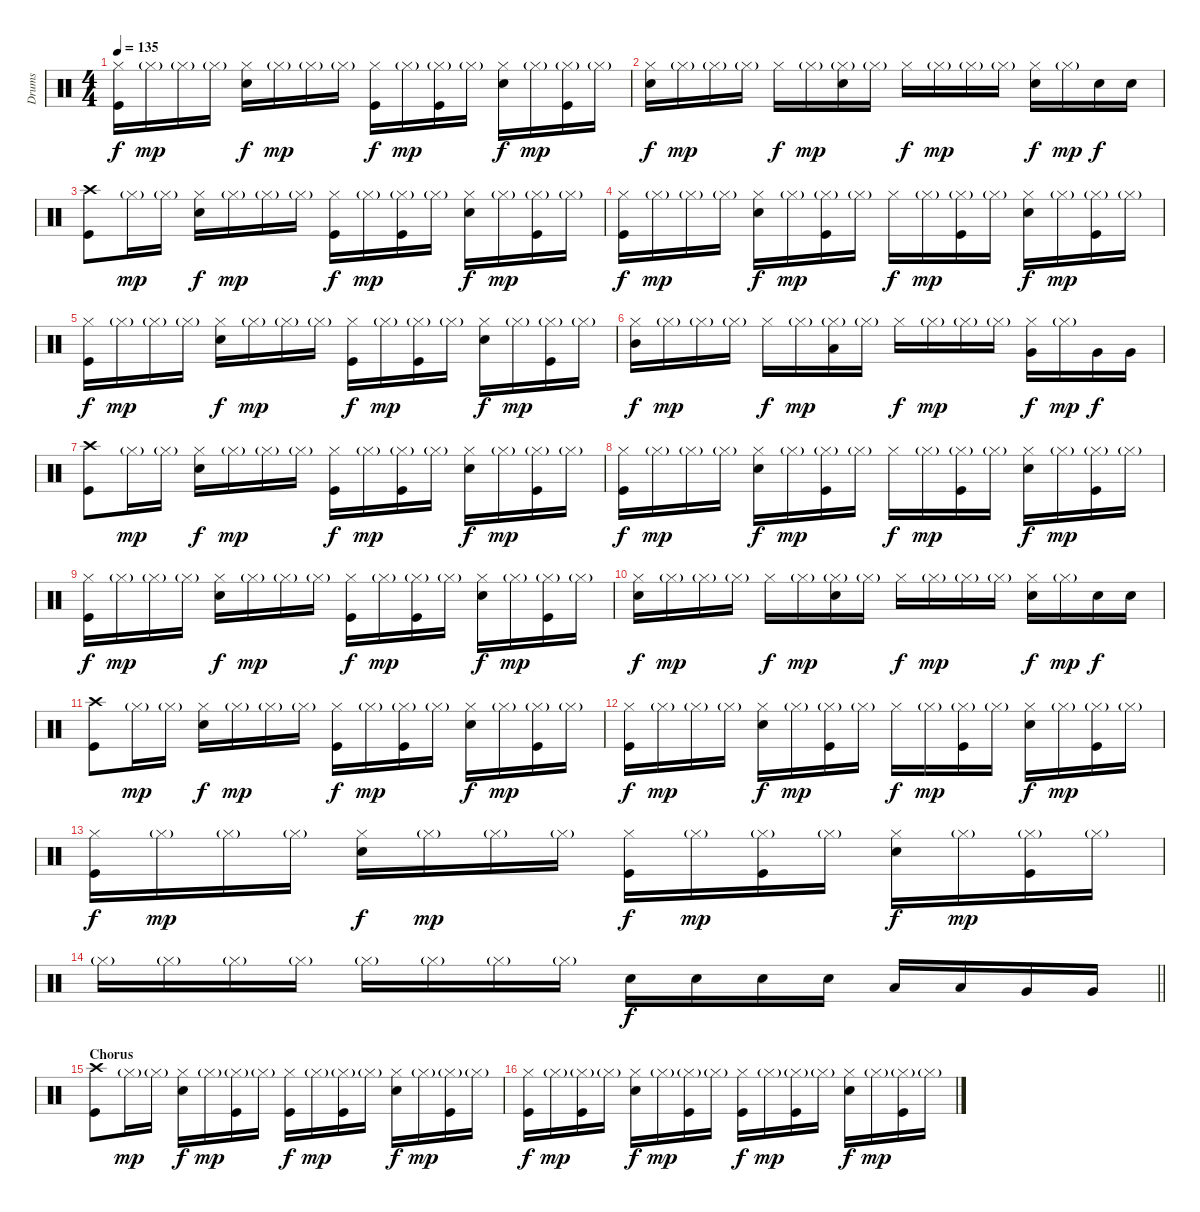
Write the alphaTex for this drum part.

\track ("Drums" "Drums") {instrument percussion}
\staff {score}
\articulation defaults
\ts (4 4)
\tempo 135
\clef neutral
\ks c
("Hi-Hat (closed)" "Kick (hit)").16{dy f} "Hi-Hat (closed)"{g}.16{dy mp} "Hi-Hat (closed)"{g}.16 "Hi-Hat (closed)"{g}.16 ("Hi-Hat (closed)" "Snare (hit) 2").16{dy f} "Hi-Hat (closed)"{g}.16{dy mp} "Hi-Hat (closed)"{g}.16 "Hi-Hat (closed)"{g}.16 ("Hi-Hat (closed)" "Kick (hit)").16{dy f} "Hi-Hat (closed)"{g}.16{dy mp} ("Hi-Hat (closed)"{g} "Kick (hit)").16 "Hi-Hat (closed)"{g}.16 ("Hi-Hat (closed)" "Snare (hit) 2").16{dy f} "Hi-Hat (closed)"{g}.16{dy mp} ("Hi-Hat (closed)"{g} "Kick (hit)").16 "Hi-Hat (closed)"{g}.16 |
("Hi-Hat (closed)" "Snare (hit) 2").16{dy f} "Hi-Hat (closed)"{g}.16{dy mp} "Hi-Hat (closed)"{g}.16 "Hi-Hat (closed)"{g}.16 "Hi-Hat (closed)".16{dy f} "Hi-Hat (closed)"{g}.16{dy mp} ("Hi-Hat (closed)"{g} "Snare (hit) 2").16 "Hi-Hat (closed)"{g}.16 "Hi-Hat (closed)".16{dy f} "Hi-Hat (closed)"{g}.16{dy mp} "Hi-Hat (closed)"{g}.16 "Hi-Hat (closed)"{g}.16 ("Hi-Hat (closed)" "Snare (hit) 2").16{dy f} "Hi-Hat (closed)"{g}.16{dy mp} "Snare (hit) 2".16{dy f} "Snare (hit) 2".16 |
("Crash high (hit)" "Kick (hit)").8 "Hi-Hat (closed)"{g}.16{dy mp} "Hi-Hat (closed)"{g}.16 ("Hi-Hat (closed)" "Snare (hit) 2").16{dy f} "Hi-Hat (closed)"{g}.16{dy mp} "Hi-Hat (closed)"{g}.16 "Hi-Hat (closed)"{g}.16 ("Hi-Hat (closed)" "Kick (hit)").16{dy f} "Hi-Hat (closed)"{g}.16{dy mp} ("Hi-Hat (closed)"{g} "Kick (hit)").16 "Hi-Hat (closed)"{g}.16 ("Hi-Hat (closed)" "Snare (hit) 2").16{dy f} "Hi-Hat (closed)"{g}.16{dy mp} ("Hi-Hat (closed)"{g} "Kick (hit)").16 "Hi-Hat (closed)"{g}.16 |
("Hi-Hat (closed)" "Kick (hit)").16{dy f} "Hi-Hat (closed)"{g}.16{dy mp} "Hi-Hat (closed)"{g}.16 "Hi-Hat (closed)"{g}.16 ("Hi-Hat (closed)" "Snare (hit) 2").16{dy f} "Hi-Hat (closed)"{g}.16{dy mp} ("Hi-Hat (closed)"{g} "Kick (hit)").16 "Hi-Hat (closed)"{g}.16 "Hi-Hat (closed)".16{dy f} "Hi-Hat (closed)"{g}.16{dy mp} ("Hi-Hat (closed)"{g} "Kick (hit)").16 "Hi-Hat (closed)"{g}.16 ("Hi-Hat (closed)" "Snare (hit) 2").16{dy f} "Hi-Hat (closed)"{g}.16{dy mp} ("Hi-Hat (closed)"{g} "Kick (hit)").16 "Hi-Hat (closed)"{g}.16 |
("Hi-Hat (closed)" "Kick (hit)").16{dy f} "Hi-Hat (closed)"{g}.16{dy mp} "Hi-Hat (closed)"{g}.16 "Hi-Hat (closed)"{g}.16 ("Hi-Hat (closed)" "Snare (hit) 2").16{dy f} "Hi-Hat (closed)"{g}.16{dy mp} "Hi-Hat (closed)"{g}.16 "Hi-Hat (closed)"{g}.16 ("Hi-Hat (closed)" "Kick (hit)").16{dy f} "Hi-Hat (closed)"{g}.16{dy mp} ("Hi-Hat (closed)"{g} "Kick (hit)").16 "Hi-Hat (closed)"{g}.16 ("Hi-Hat (closed)" "Snare (hit) 2").16{dy f} "Hi-Hat (closed)"{g}.16{dy mp} ("Hi-Hat (closed)"{g} "Kick (hit)").16 "Hi-Hat (closed)"{g}.16 |
("Hi-Hat (closed)" "Mid Tom (hit)").16{dy f} "Hi-Hat (closed)"{g}.16{dy mp} "Hi-Hat (closed)"{g}.16 "Hi-Hat (closed)"{g}.16 "Hi-Hat (closed)".16{dy f} "Hi-Hat (closed)"{g}.16{dy mp} ("Hi-Hat (closed)"{g} "Low Tom (hit)").16 "Hi-Hat (closed)"{g}.16 "Hi-Hat (closed)".16{dy f} "Hi-Hat (closed)"{g}.16{dy mp} "Hi-Hat (closed)"{g}.16 "Hi-Hat (closed)"{g}.16 ("Hi-Hat (closed)" "Very Low Tom (hit)").16{dy f} "Hi-Hat (closed)"{g}.16{dy mp} "Very Low Tom (hit)".16{dy f} "Very Low Tom (hit)".16 |
("Crash high (hit)" "Kick (hit)").8 "Hi-Hat (closed)"{g}.16{dy mp} "Hi-Hat (closed)"{g}.16 ("Hi-Hat (closed)" "Snare (hit) 2").16{dy f} "Hi-Hat (closed)"{g}.16{dy mp} "Hi-Hat (closed)"{g}.16 "Hi-Hat (closed)"{g}.16 ("Hi-Hat (closed)" "Kick (hit)").16{dy f} "Hi-Hat (closed)"{g}.16{dy mp} ("Hi-Hat (closed)"{g} "Kick (hit)").16 "Hi-Hat (closed)"{g}.16 ("Hi-Hat (closed)" "Snare (hit) 2").16{dy f} "Hi-Hat (closed)"{g}.16{dy mp} ("Hi-Hat (closed)"{g} "Kick (hit)").16 "Hi-Hat (closed)"{g}.16 |
("Hi-Hat (closed)" "Kick (hit)").16{dy f} "Hi-Hat (closed)"{g}.16{dy mp} "Hi-Hat (closed)"{g}.16 "Hi-Hat (closed)"{g}.16 ("Hi-Hat (closed)" "Snare (hit) 2").16{dy f} "Hi-Hat (closed)"{g}.16{dy mp} ("Hi-Hat (closed)"{g} "Kick (hit)").16 "Hi-Hat (closed)"{g}.16 "Hi-Hat (closed)".16{dy f} "Hi-Hat (closed)"{g}.16{dy mp} ("Hi-Hat (closed)"{g} "Kick (hit)").16 "Hi-Hat (closed)"{g}.16 ("Hi-Hat (closed)" "Snare (hit) 2").16{dy f} "Hi-Hat (closed)"{g}.16{dy mp} ("Hi-Hat (closed)"{g} "Kick (hit)").16 "Hi-Hat (closed)"{g}.16 |
("Hi-Hat (closed)" "Kick (hit)").16{dy f} "Hi-Hat (closed)"{g}.16{dy mp} "Hi-Hat (closed)"{g}.16 "Hi-Hat (closed)"{g}.16 ("Hi-Hat (closed)" "Snare (hit) 2").16{dy f} "Hi-Hat (closed)"{g}.16{dy mp} "Hi-Hat (closed)"{g}.16 "Hi-Hat (closed)"{g}.16 ("Hi-Hat (closed)" "Kick (hit)").16{dy f} "Hi-Hat (closed)"{g}.16{dy mp} ("Hi-Hat (closed)"{g} "Kick (hit)").16 "Hi-Hat (closed)"{g}.16 ("Hi-Hat (closed)" "Snare (hit) 2").16{dy f} "Hi-Hat (closed)"{g}.16{dy mp} ("Hi-Hat (closed)"{g} "Kick (hit)").16 "Hi-Hat (closed)"{g}.16 |
("Hi-Hat (closed)" "Snare (hit) 2").16{dy f} "Hi-Hat (closed)"{g}.16{dy mp} "Hi-Hat (closed)"{g}.16 "Hi-Hat (closed)"{g}.16 "Hi-Hat (closed)".16{dy f} "Hi-Hat (closed)"{g}.16{dy mp} ("Hi-Hat (closed)"{g} "Snare (hit) 2").16 "Hi-Hat (closed)"{g}.16 "Hi-Hat (closed)".16{dy f} "Hi-Hat (closed)"{g}.16{dy mp} "Hi-Hat (closed)"{g}.16 "Hi-Hat (closed)"{g}.16 ("Hi-Hat (closed)" "Snare (hit) 2").16{dy f} "Hi-Hat (closed)"{g}.16{dy mp} "Snare (hit) 2".16{dy f} "Snare (hit) 2".16 |
("Crash high (hit)" "Kick (hit)").8 "Hi-Hat (closed)"{g}.16{dy mp} "Hi-Hat (closed)"{g}.16 ("Hi-Hat (closed)" "Snare (hit) 2").16{dy f} "Hi-Hat (closed)"{g}.16{dy mp} "Hi-Hat (closed)"{g}.16 "Hi-Hat (closed)"{g}.16 ("Hi-Hat (closed)" "Kick (hit)").16{dy f} "Hi-Hat (closed)"{g}.16{dy mp} ("Hi-Hat (closed)"{g} "Kick (hit)").16 "Hi-Hat (closed)"{g}.16 ("Hi-Hat (closed)" "Snare (hit) 2").16{dy f} "Hi-Hat (closed)"{g}.16{dy mp} ("Hi-Hat (closed)"{g} "Kick (hit)").16 "Hi-Hat (closed)"{g}.16 |
("Hi-Hat (closed)" "Kick (hit)").16{dy f} "Hi-Hat (closed)"{g}.16{dy mp} "Hi-Hat (closed)"{g}.16 "Hi-Hat (closed)"{g}.16 ("Hi-Hat (closed)" "Snare (hit) 2").16{dy f} "Hi-Hat (closed)"{g}.16{dy mp} ("Hi-Hat (closed)"{g} "Kick (hit)").16 "Hi-Hat (closed)"{g}.16 "Hi-Hat (closed)".16{dy f} "Hi-Hat (closed)"{g}.16{dy mp} ("Hi-Hat (closed)"{g} "Kick (hit)").16 "Hi-Hat (closed)"{g}.16 ("Hi-Hat (closed)" "Snare (hit) 2").16{dy f} "Hi-Hat (closed)"{g}.16{dy mp} ("Hi-Hat (closed)"{g} "Kick (hit)").16 "Hi-Hat (closed)"{g}.16 |
("Hi-Hat (closed)" "Kick (hit)").16{dy f} "Hi-Hat (closed)"{g}.16{dy mp} "Hi-Hat (closed)"{g}.16 "Hi-Hat (closed)"{g}.16 ("Hi-Hat (closed)" "Snare (hit) 2").16{dy f} "Hi-Hat (closed)"{g}.16{dy mp} "Hi-Hat (closed)"{g}.16 "Hi-Hat (closed)"{g}.16 ("Hi-Hat (closed)" "Kick (hit)").16{dy f} "Hi-Hat (closed)"{g}.16{dy mp} ("Hi-Hat (closed)"{g} "Kick (hit)").16 "Hi-Hat (closed)"{g}.16 ("Hi-Hat (closed)" "Snare (hit) 2").16{dy f} "Hi-Hat (closed)"{g}.16{dy mp} ("Hi-Hat (closed)"{g} "Kick (hit)").16 "Hi-Hat (closed)"{g}.16 |
\barLineRight lightlight "Hi-Hat (closed)"{g}.16 "Hi-Hat (closed)"{g}.16 "Hi-Hat (closed)"{g}.16 "Hi-Hat (closed)"{g}.16 "Hi-Hat (closed)"{g}.16 "Hi-Hat (closed)"{g}.16 "Hi-Hat (closed)"{g}.16 "Hi-Hat (closed)"{g}.16 "Snare (hit) 2".16{dy f} "Snare (hit) 2".16 "Snare (hit) 2".16 "Snare (hit) 2".16 "Low Tom (hit)".16 "Low Tom (hit)".16 "Very Low Tom (hit)".16 "Very Low Tom (hit)".16
|
\section ("" "Chorus")
("Crash high (hit)" "Kick (hit)").8 "Hi-Hat (closed)"{g}.16{dy mp} "Hi-Hat (closed)"{g}.16 ("Hi-Hat (closed)" "Snare (hit) 2").16{dy f} "Hi-Hat (closed)"{g}.16{dy mp} ("Hi-Hat (closed)"{g} "Kick (hit)").16 "Hi-Hat (closed)"{g}.16 ("Hi-Hat (closed)" "Kick (hit)").16{dy f} "Hi-Hat (closed)"{g}.16{dy mp} ("Hi-Hat (closed)"{g} "Kick (hit)").16 "Hi-Hat (closed)"{g}.16 ("Hi-Hat (closed)" "Snare (hit) 2").16{dy f} "Hi-Hat (closed)"{g}.16{dy mp} ("Hi-Hat (closed)"{g} "Kick (hit)").16 "Hi-Hat (closed)"{g}.16 |
("Hi-Hat (closed)" "Kick (hit)").16{dy f} "Hi-Hat (closed)"{g}.16{dy mp} ("Hi-Hat (closed)"{g} "Kick (hit)").16 "Hi-Hat (closed)"{g}.16 ("Hi-Hat (closed)" "Snare (hit) 2").16{dy f} "Hi-Hat (closed)"{g}.16{dy mp} ("Hi-Hat (closed)"{g} "Kick (hit)").16 "Hi-Hat (closed)"{g}.16 ("Hi-Hat (closed)" "Kick (hit)").16{dy f} "Hi-Hat (closed)"{g}.16{dy mp} ("Hi-Hat (closed)"{g} "Kick (hit)").16 "Hi-Hat (closed)"{g}.16 ("Hi-Hat (closed)" "Snare (hit) 2").16{dy f} "Hi-Hat (closed)"{g}.16{dy mp} ("Hi-Hat (closed)"{g} "Kick (hit)").16 "Hi-Hat (closed)"{g}.16
